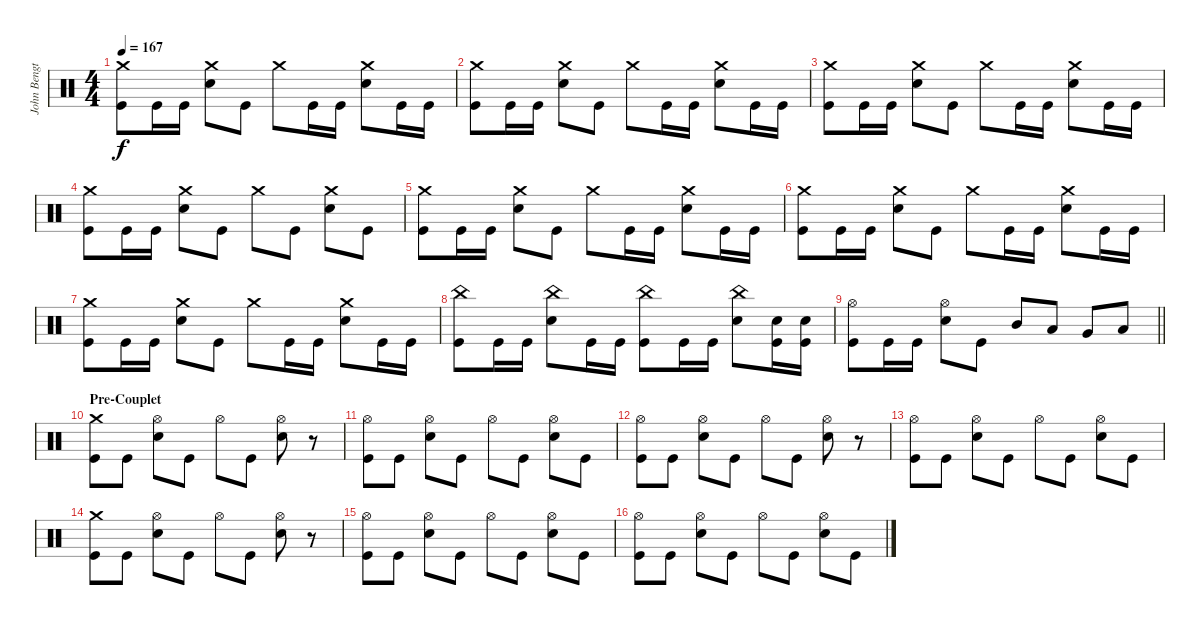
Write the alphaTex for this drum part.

\track ("John Bengtsson" "John Bengt") {instrument percussion}
\staff {score}
\articulation defaults
\ts (4 4)
\tempo 167
\clef neutral
\ks c
("Crash medium (hit)" "Kick (hit)").8{dy f} "Kick (hit)".16 "Kick (hit)".16 ("Crash medium (hit)" "Snare (hit) 2").8 "Kick (hit)".8 "Crash medium (hit)".8 "Kick (hit)".16 "Kick (hit)".16 ("Crash medium (hit)" "Snare (hit) 2").8 "Kick (hit)".16 "Kick (hit)".16 |
("Crash medium (hit)" "Kick (hit)").8 "Kick (hit)".16 "Kick (hit)".16 ("Crash medium (hit)" "Snare (hit) 2").8 "Kick (hit)".8 "Crash medium (hit)".8 "Kick (hit)".16 "Kick (hit)".16 ("Crash medium (hit)" "Snare (hit) 2").8 "Kick (hit)".16 "Kick (hit)".16 |
("Crash medium (hit)" "Kick (hit)").8 "Kick (hit)".16 "Kick (hit)".16 ("Crash medium (hit)" "Snare (hit) 2").8 "Kick (hit)".8 "Crash medium (hit)".8 "Kick (hit)".16 "Kick (hit)".16 ("Crash medium (hit)" "Snare (hit) 2").8 "Kick (hit)".16 "Kick (hit)".16 |
("Crash medium (hit)" "Kick (hit)").8 "Kick (hit)".16 "Kick (hit)".16 ("Crash medium (hit)" "Snare (hit) 2").8 "Kick (hit)".8 "Crash medium (hit)".8 "Kick (hit)".8 ("Crash medium (hit)" "Snare (hit) 2").8 "Kick (hit)".8 |
("Crash medium (hit)" "Kick (hit)").8 "Kick (hit)".16 "Kick (hit)".16 ("Crash medium (hit)" "Snare (hit) 2").8 "Kick (hit)".8 "Crash medium (hit)".8 "Kick (hit)".16 "Kick (hit)".16 ("Crash medium (hit)" "Snare (hit) 2").8 "Kick (hit)".16 "Kick (hit)".16 |
("Crash medium (hit)" "Kick (hit)").8 "Kick (hit)".16 "Kick (hit)".16 ("Crash medium (hit)" "Snare (hit) 2").8 "Kick (hit)".8 "Crash medium (hit)".8 "Kick (hit)".16 "Kick (hit)".16 ("Crash medium (hit)" "Snare (hit) 2").8 "Kick (hit)".16 "Kick (hit)".16 |
("Crash medium (hit)" "Kick (hit)").8 "Kick (hit)".16 "Kick (hit)".16 ("Crash medium (hit)" "Snare (hit) 2").8 "Kick (hit)".8 "Crash medium (hit)".8 "Kick (hit)".16 "Kick (hit)".16 ("Crash medium (hit)" "Snare (hit) 2").8 "Kick (hit)".16 "Kick (hit)".16 |
("China (hit)" "Kick (hit)").8 "Kick (hit)".16 "Kick (hit)".16 ("China (hit)" "Snare (hit) 2").8 "Kick (hit)".16 "Kick (hit)".16 ("China (hit)" "Kick (hit)").8 "Kick (hit)".16 "Kick (hit)".16 ("China (hit)" "Snare (hit) 2").8 ("Snare (hit) 2" "Kick (hit)").16 ("Snare (hit) 2" "Kick (hit)").16 |
\barLineRight lightlight
("Hi-Hat (open)" "Kick (hit)").8 "Kick (hit)".16 "Kick (hit)".16 ("Hi-Hat (open)" "Snare (hit) 2").8 "Kick (hit)".8 "Mid Tom (hit)".8 "Low Tom (hit)".8 "Very Low Tom (hit)".8 "Low Floor Tom (hit)".8 |
\section ("" "Pre-Couplet")
("Crash medium (hit)" "Kick (hit)").8 "Kick (hit)".8 ("Hi-Hat (open)" "Snare (hit) 2").8 "Kick (hit)".8 "Hi-Hat (open)".8 "Kick (hit)".8 ("Hi-Hat (open)" "Snare (hit) 2").8 r.8 |
("Hi-Hat (open)" "Kick (hit)").8 "Kick (hit)".8 ("Hi-Hat (open)" "Snare (hit) 2").8 "Kick (hit)".8 "Hi-Hat (open)".8 "Kick (hit)".8 ("Hi-Hat (open)" "Snare (hit) 2").8 "Kick (hit)".8 |
("Hi-Hat (open)" "Kick (hit)").8 "Kick (hit)".8 ("Hi-Hat (open)" "Snare (hit) 2").8 "Kick (hit)".8 "Hi-Hat (open)".8 "Kick (hit)".8 ("Hi-Hat (open)" "Snare (hit) 2").8 r.8 |
("Hi-Hat (open)" "Kick (hit)").8 "Kick (hit)".8 ("Hi-Hat (open)" "Snare (hit) 2").8 "Kick (hit)".8 "Hi-Hat (open)".8 "Kick (hit)".8 ("Hi-Hat (open)" "Snare (hit) 2").8 "Kick (hit)".8 |
("Crash medium (hit)" "Kick (hit)").8 "Kick (hit)".8 ("Hi-Hat (open)" "Snare (hit) 2").8 "Kick (hit)".8 "Hi-Hat (open)".8 "Kick (hit)".8 ("Hi-Hat (open)" "Snare (hit) 2").8 r.8 |
("Hi-Hat (open)" "Kick (hit)").8 "Kick (hit)".8 ("Hi-Hat (open)" "Snare (hit) 2").8 "Kick (hit)".8 "Hi-Hat (open)".8 "Kick (hit)".8 ("Hi-Hat (open)" "Snare (hit) 2").8 "Kick (hit)".8 |
("Hi-Hat (open)" "Kick (hit)").8 "Kick (hit)".8 ("Hi-Hat (open)" "Snare (hit) 2").8 "Kick (hit)".8 "Hi-Hat (open)".8 "Kick (hit)".8 ("Hi-Hat (open)" "Snare (hit) 2").8 "Kick (hit)".8
